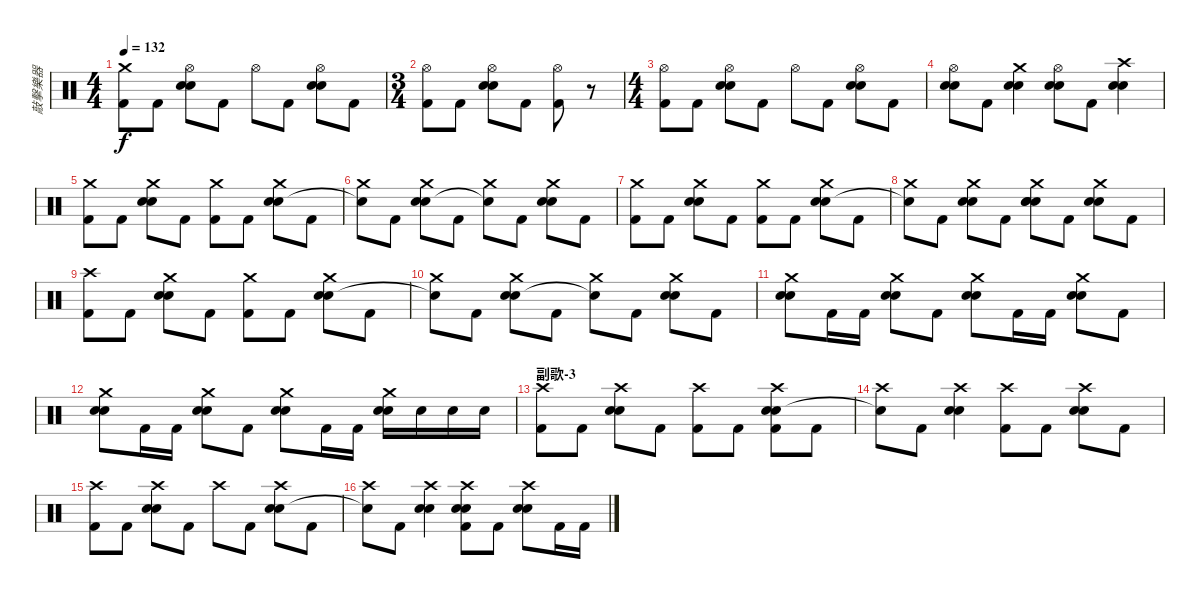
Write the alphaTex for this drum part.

\track ("敲擊樂器" "敲擊樂器") {instrument percussion}
\staff {score}
\articulation defaults
\ts (4 4)
\tempo 132
\clef neutral
\ks c
("Crash medium (hit)" "Kick (hit) 2").8{dy f} "Kick (hit) 2".8 ("Hi-Hat (open)" "Electric Snare (hit)" "Snare (hit) 2").8 "Kick (hit) 2".8 "Hi-Hat (open)".8 "Kick (hit) 2".8 ("Hi-Hat (open)" "Electric Snare (hit)" "Snare (hit) 2").8 "Kick (hit) 2".8 |
\ts (3 4)
("Hi-Hat (open)" "Kick (hit) 2").8 "Kick (hit) 2".8 ("Hi-Hat (open)" "Electric Snare (hit)" "Snare (hit) 2").8 "Kick (hit) 2".8 ("Hi-Hat (open)" "Kick (hit) 2").8 r.8 |
\ts (4 4)
("Hi-Hat (open)" "Kick (hit) 2").8 "Kick (hit) 2".8 ("Hi-Hat (open)" "Electric Snare (hit)" "Snare (hit) 2").8 "Kick (hit) 2".8 "Hi-Hat (open)".8 "Kick (hit) 2".8 ("Hi-Hat (open)" "Electric Snare (hit)" "Snare (hit) 2").8 "Kick (hit) 2".8 |
("Hi-Hat (open)" "Electric Snare (hit)" "Snare (hit) 2").8 "Kick (hit) 2".8 ("Crash medium (hit)" "Electric Snare (hit)" "Snare (hit) 2").4 ("Hi-Hat (open)" "Electric Snare (hit)" "Snare (hit) 2").8 "Kick (hit) 2".8 ("Crash high (hit)" "Electric Snare (hit)" "Snare (hit) 2").4 |
("Crash medium (hit)" "Kick (hit) 2").8 "Kick (hit) 2".8 ("Crash medium (hit)" "Electric Snare (hit)" "Snare (hit) 2").8 "Kick (hit) 2".8 ("Crash medium (hit)" "Kick (hit) 2").8 "Kick (hit) 2".8 ("Crash medium (hit)" "Electric Snare (hit)" "Snare (hit) 2").8 "Kick (hit) 2".8 |
("Crash medium (hit)" "Snare (hit)"{t}).8 "Kick (hit) 2".8 ("Crash medium (hit)" "Electric Snare (hit)" "Snare (hit) 2").8 "Kick (hit) 2".8 ("Crash medium (hit)" "Snare (hit)"{t}).8 "Kick (hit) 2".8 ("Crash medium (hit)" "Electric Snare (hit)" "Snare (hit) 2").8 "Kick (hit) 2".8 |
("Crash medium (hit)" "Kick (hit) 2").8 "Kick (hit) 2".8 ("Crash medium (hit)" "Electric Snare (hit)" "Snare (hit) 2").8 "Kick (hit) 2".8 ("Crash medium (hit)" "Kick (hit) 2").8 "Kick (hit) 2".8 ("Crash medium (hit)" "Electric Snare (hit)" "Snare (hit) 2").8 "Kick (hit) 2".8 |
("Crash medium (hit)" "Snare (hit)"{t}).8 "Kick (hit) 2".8 ("Crash medium (hit)" "Electric Snare (hit)" "Snare (hit) 2").8 "Kick (hit) 2".8 ("Crash medium (hit)" "Electric Snare (hit)" "Snare (hit) 2" "Snare (hit)").8 "Kick (hit) 2".8 ("Crash medium (hit)" "Electric Snare (hit)" "Snare (hit) 2").8 "Kick (hit) 2".8 |
("Crash high (hit)" "Kick (hit) 2").8 "Kick (hit) 2".8 ("Crash medium (hit)" "Electric Snare (hit)" "Snare (hit) 2").8 "Kick (hit) 2".8 ("Crash medium (hit)" "Kick (hit) 2").8 "Kick (hit) 2".8 ("Crash medium (hit)" "Electric Snare (hit)" "Snare (hit) 2").8 "Kick (hit) 2".8 |
("Crash medium (hit)" "Snare (hit)"{t}).8 "Kick (hit) 2".8 ("Crash medium (hit)" "Electric Snare (hit)" "Snare (hit) 2").8 "Kick (hit) 2".8 ("Crash medium (hit)" "Snare (hit)"{t}).8 "Kick (hit) 2".8 ("Crash medium (hit)" "Electric Snare (hit)" "Snare (hit) 2").8 "Kick (hit) 2".8 |
("Crash medium (hit)" "Electric Snare (hit)" "Snare (hit) 2").8 "Kick (hit) 2".16 "Kick (hit) 2".16 ("Crash medium (hit)" "Electric Snare (hit)" "Snare (hit) 2").8 "Kick (hit) 2".8 ("Crash medium (hit)" "Electric Snare (hit)" "Snare (hit) 2").8 "Kick (hit) 2".16 "Kick (hit) 2".16 ("Crash medium (hit)" "Electric Snare (hit)" "Snare (hit) 2").8 "Kick (hit) 2".8 |
("Crash medium (hit)" "Electric Snare (hit)" "Snare (hit) 2").8 "Kick (hit) 2".16 "Kick (hit) 2".16 ("Crash medium (hit)" "Electric Snare (hit)" "Snare (hit) 2").8 "Kick (hit) 2".8 ("Crash medium (hit)" "Electric Snare (hit)" "Snare (hit) 2").8 "Kick (hit) 2".16 "Kick (hit) 2".16 ("Crash medium (hit)" "Electric Snare (hit)" "Snare (hit) 2").16 "Snare (hit) 2".16 "Snare (hit) 2".16 "Snare (hit) 2".16 |
\section ("" "副歌-3")
("Crash high (hit)" "Kick (hit) 2").8 "Kick (hit) 2".8 ("Crash high (hit)" "Electric Snare (hit)" "Snare (hit) 2").8 "Kick (hit) 2".8 ("Crash high (hit)" "Kick (hit) 2").8 "Kick (hit) 2".8 ("Crash high (hit)" "Electric Snare (hit)" "Snare (hit) 2" "Kick (hit) 2").8 "Kick (hit) 2".8 |
("Crash high (hit)" "Snare (hit)"{t}).8 "Kick (hit) 2".8 ("Crash high (hit)" "Electric Snare (hit)" "Snare (hit) 2").4 ("Crash high (hit)" "Kick (hit) 2").8 "Kick (hit) 2".8 ("Crash high (hit)" "Electric Snare (hit)" "Snare (hit) 2").8 "Kick (hit) 2".8 |
("Crash high (hit)" "Kick (hit) 2").8 "Kick (hit) 2".8 ("Crash high (hit)" "Electric Snare (hit)" "Snare (hit) 2").8 "Kick (hit) 2".8 "Crash high (hit)".8 "Kick (hit) 2".8 ("Crash high (hit)" "Electric Snare (hit)" "Snare (hit) 2").8 "Kick (hit) 2".8 |
("Crash high (hit)" "Snare (hit)"{t}).8 "Kick (hit) 2".8 ("Crash high (hit)" "Electric Snare (hit)" "Snare (hit) 2").4 ("Crash high (hit)" "Electric Snare (hit)" "Snare (hit) 2" "Kick (hit) 2").8 "Kick (hit) 2".8 ("Crash high (hit)" "Electric Snare (hit)" "Snare (hit) 2").8 "Kick (hit) 2".16 "Kick (hit) 2".16
